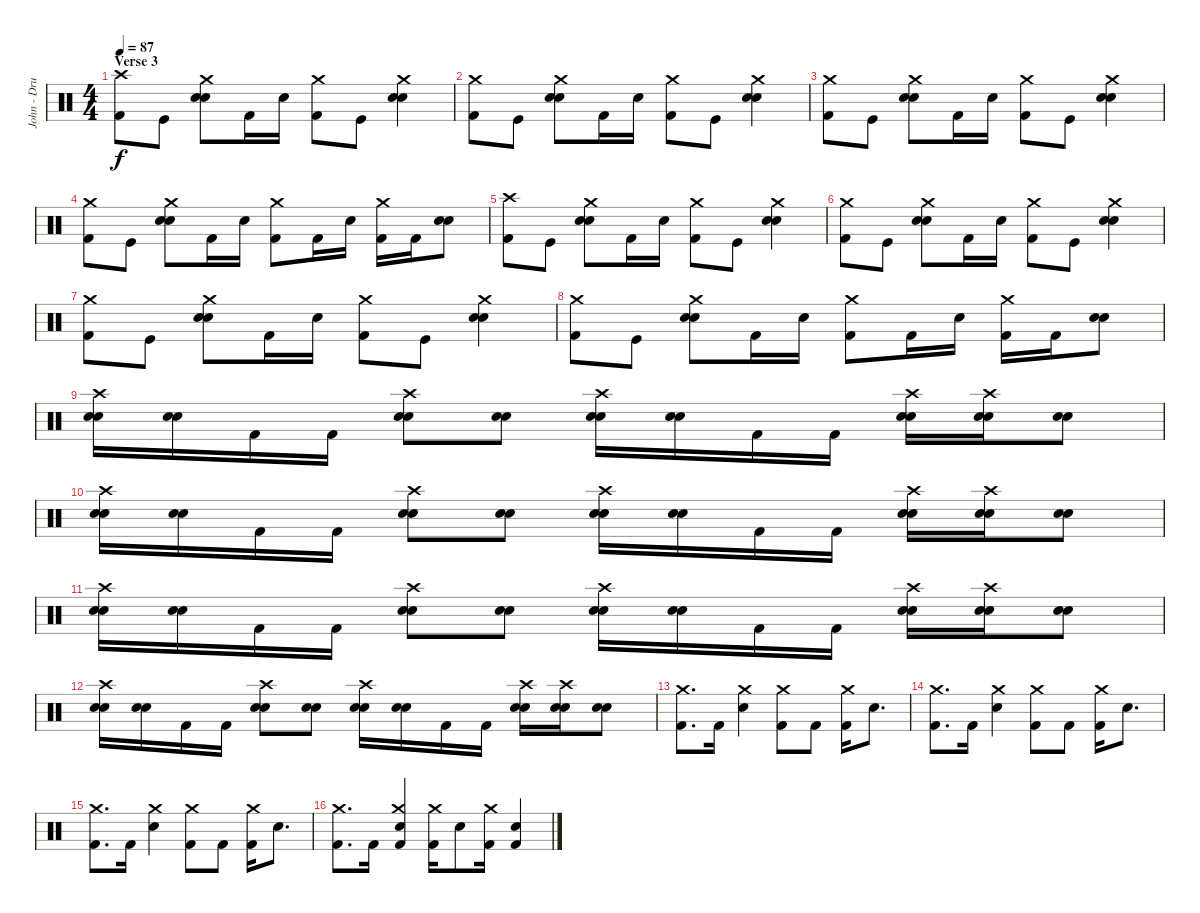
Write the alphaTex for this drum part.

\track ("John - Drum" "John - Dru") {instrument percussion}
\staff {score}
\articulation defaults
\ts (4 4)
\section ("" "Verse 3")
\tempo 87
\clef neutral
\ks c
("Crash high (hit)" "Kick (hit) 2").8{dy f} "Kick (hit)".8 ("Crash medium (hit)" "Electric Snare (hit)" "Snare (hit) 2").8 "Kick (hit) 2".16 "Electric Snare (hit)".16 ("Crash medium (hit)" "Kick (hit) 2").8 "Kick (hit)".8 ("Crash medium (hit)" "Electric Snare (hit)" "Snare (hit) 2").4 |
("Crash medium (hit)" "Kick (hit) 2").8 "Kick (hit)".8 ("Crash medium (hit)" "Electric Snare (hit)" "Snare (hit) 2").8 "Kick (hit) 2".16 "Electric Snare (hit)".16 ("Crash medium (hit)" "Kick (hit) 2").8 "Kick (hit)".8 ("Crash medium (hit)" "Electric Snare (hit)" "Snare (hit) 2").4 |
("Crash medium (hit)" "Kick (hit) 2").8 "Kick (hit)".8 ("Crash medium (hit)" "Electric Snare (hit)" "Snare (hit) 2").8 "Kick (hit) 2".16 "Electric Snare (hit)".16 ("Crash medium (hit)" "Kick (hit) 2").8 "Kick (hit)".8 ("Crash medium (hit)" "Electric Snare (hit)" "Snare (hit) 2").4 |
("Crash medium (hit)" "Kick (hit) 2").8 "Kick (hit)".8 ("Crash medium (hit)" "Electric Snare (hit)" "Snare (hit) 2").8 "Kick (hit) 2".16 "Electric Snare (hit)".16 ("Crash medium (hit)" "Kick (hit) 2").8 "Kick (hit) 2".16 "Electric Snare (hit)".16 ("Crash medium (hit)" "Kick (hit) 2").16 "Kick (hit) 2".16 ("Electric Snare (hit)" "Snare (hit) 2").8 |
("Crash high (hit)" "Kick (hit) 2").8 "Kick (hit)".8 ("Crash medium (hit)" "Electric Snare (hit)" "Snare (hit) 2").8 "Kick (hit) 2".16 "Electric Snare (hit)".16 ("Crash medium (hit)" "Kick (hit) 2").8 "Kick (hit)".8 ("Crash medium (hit)" "Electric Snare (hit)" "Snare (hit) 2").4 |
("Crash medium (hit)" "Kick (hit) 2").8 "Kick (hit)".8 ("Crash medium (hit)" "Electric Snare (hit)" "Snare (hit) 2").8 "Kick (hit) 2".16 "Electric Snare (hit)".16 ("Crash medium (hit)" "Kick (hit) 2").8 "Kick (hit)".8 ("Crash medium (hit)" "Electric Snare (hit)" "Snare (hit) 2").4 |
("Crash medium (hit)" "Kick (hit) 2").8 "Kick (hit)".8 ("Crash medium (hit)" "Electric Snare (hit)" "Snare (hit) 2").8 "Kick (hit) 2".16 "Electric Snare (hit)".16 ("Crash medium (hit)" "Kick (hit) 2").8 "Kick (hit)".8 ("Crash medium (hit)" "Electric Snare (hit)" "Snare (hit) 2").4 |
("Crash medium (hit)" "Kick (hit) 2").8 "Kick (hit)".8 ("Crash medium (hit)" "Electric Snare (hit)" "Snare (hit) 2").8 "Kick (hit) 2".16 "Electric Snare (hit)".16 ("Crash medium (hit)" "Kick (hit) 2").8 "Kick (hit) 2".16 "Electric Snare (hit)".16 ("Crash medium (hit)" "Kick (hit) 2").16 "Kick (hit) 2".16 ("Electric Snare (hit)" "Snare (hit) 2").8 |
("Crash high (hit)" "Snare (hit) 2" "Electric Snare (hit)").16 ("Snare (hit) 2" "Electric Snare (hit)").16 "Kick (hit) 2".16 "Kick (hit) 2".16 ("Crash high (hit)" "Snare (hit) 2" "Electric Snare (hit)").8 ("Snare (hit) 2" "Electric Snare (hit)").8 ("Crash high (hit)" "Snare (hit) 2" "Electric Snare (hit)").16 ("Snare (hit) 2" "Electric Snare (hit)").16 "Kick (hit) 2".16 "Kick (hit) 2".16 ("Crash high (hit)" "Snare (hit) 2" "Electric Snare (hit)").16 ("Crash high (hit)" "Snare (hit) 2" "Electric Snare (hit)").16 ("Snare (hit) 2" "Electric Snare (hit)").8 |
("Crash high (hit)" "Snare (hit) 2" "Electric Snare (hit)").16 ("Snare (hit) 2" "Electric Snare (hit)").16 "Kick (hit) 2".16 "Kick (hit) 2".16 ("Crash high (hit)" "Snare (hit) 2" "Electric Snare (hit)").8 ("Snare (hit) 2" "Electric Snare (hit)").8 ("Crash high (hit)" "Snare (hit) 2" "Electric Snare (hit)").16 ("Snare (hit) 2" "Electric Snare (hit)").16 "Kick (hit) 2".16 "Kick (hit) 2".16 ("Crash high (hit)" "Snare (hit) 2" "Electric Snare (hit)").16 ("Crash high (hit)" "Snare (hit) 2" "Electric Snare (hit)").16 ("Snare (hit) 2" "Electric Snare (hit)").8 |
("Crash high (hit)" "Snare (hit) 2" "Electric Snare (hit)").16 ("Snare (hit) 2" "Electric Snare (hit)").16 "Kick (hit) 2".16 "Kick (hit) 2".16 ("Crash high (hit)" "Snare (hit) 2" "Electric Snare (hit)").8 ("Snare (hit) 2" "Electric Snare (hit)").8 ("Crash high (hit)" "Snare (hit) 2" "Electric Snare (hit)").16 ("Snare (hit) 2" "Electric Snare (hit)").16 "Kick (hit) 2".16 "Kick (hit) 2".16 ("Crash high (hit)" "Snare (hit) 2" "Electric Snare (hit)").16 ("Crash high (hit)" "Snare (hit) 2" "Electric Snare (hit)").16 ("Snare (hit) 2" "Electric Snare (hit)").8 |
("Crash high (hit)" "Snare (hit) 2" "Electric Snare (hit)").16 ("Snare (hit) 2" "Electric Snare (hit)").16 "Kick (hit) 2".16 "Kick (hit) 2".16 ("Crash high (hit)" "Snare (hit) 2" "Electric Snare (hit)").8 ("Snare (hit) 2" "Electric Snare (hit)").8 ("Crash high (hit)" "Snare (hit) 2" "Electric Snare (hit)").16 ("Snare (hit) 2" "Electric Snare (hit)").16 "Kick (hit) 2".16 "Kick (hit) 2".16 ("Crash high (hit)" "Snare (hit) 2" "Electric Snare (hit)").16 ("Crash high (hit)" "Snare (hit) 2" "Electric Snare (hit)").16 ("Snare (hit) 2" "Electric Snare (hit)").8 |
("Crash medium (hit)" "Kick (hit) 2").8{d} "Kick (hit) 2".16 ("Crash medium (hit)" "Electric Snare (hit)").4 ("Crash medium (hit)" "Kick (hit) 2").8 "Kick (hit) 2".8 ("Crash medium (hit)" "Kick (hit) 2").16 "Electric Snare (hit)".8{d} |
("Crash medium (hit)" "Kick (hit) 2").8{d} "Kick (hit) 2".16 ("Crash medium (hit)" "Electric Snare (hit)").4 ("Crash medium (hit)" "Kick (hit) 2").8 "Kick (hit) 2".8 ("Crash medium (hit)" "Kick (hit) 2").16 "Electric Snare (hit)".8{d} |
("Crash medium (hit)" "Kick (hit) 2").8{d} "Kick (hit) 2".16 ("Crash medium (hit)" "Electric Snare (hit)").4 ("Crash medium (hit)" "Kick (hit) 2").8 "Kick (hit) 2".8 ("Crash medium (hit)" "Kick (hit) 2").16 "Electric Snare (hit)".8{d} |
("Crash medium (hit)" "Kick (hit) 2").8{d} "Kick (hit) 2".16 ("Crash medium (hit)" "Electric Snare (hit)" "Kick (hit) 2").4 ("Crash medium (hit)" "Kick (hit) 2").16 "Electric Snare (hit)".8 ("Crash medium (hit)" "Kick (hit) 2").16 ("Electric Snare (hit)" "Kick (hit) 2").4
